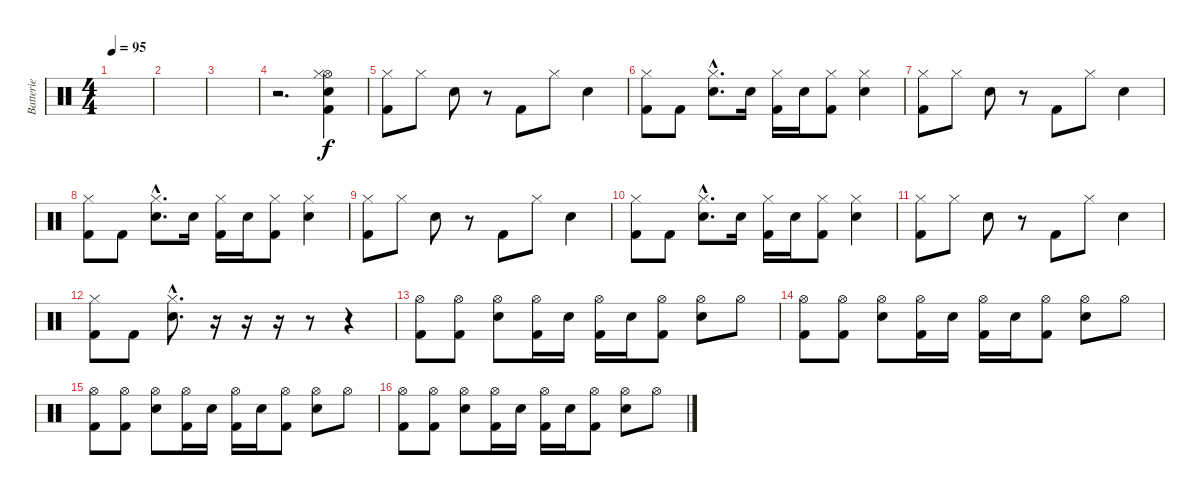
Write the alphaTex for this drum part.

\track ("Batterie" "Batterie") {instrument percussion}
\staff {score}
\articulation defaults
\ts (4 4)
\tempo 95
\clef neutral
\ks c
|
|
|
r.2{d} ("Kick (hit) 2" "Hi-Hat (open)" "Electric Snare (hit)" "Hi-Hat (closed)").4 |
("Kick (hit) 2" "Hi-Hat (closed)").8 "Hi-Hat (closed)".8 "Electric Snare (hit)".8 r.8 "Kick (hit) 2".8 "Hi-Hat (closed)".8 "Electric Snare (hit)".4 |
("Kick (hit) 2" "Hi-Hat (closed)").8 "Kick (hit) 2".8 ("Electric Snare (hit)"{hac} "Hi-Hat (closed)"{hac}).8{d} "Electric Snare (hit)".16 ("Kick (hit) 2" "Hi-Hat (closed)").16 "Electric Snare (hit)".16 ("Kick (hit) 2" "Hi-Hat (closed)").8 ("Electric Snare (hit)" "Hi-Hat (closed)").4 |
("Kick (hit) 2" "Hi-Hat (closed)").8 "Hi-Hat (closed)".8 "Electric Snare (hit)".8 r.8 "Kick (hit) 2".8 "Hi-Hat (closed)".8 "Electric Snare (hit)".4 |
("Kick (hit) 2" "Hi-Hat (closed)").8 "Kick (hit) 2".8 ("Electric Snare (hit)"{hac} "Hi-Hat (closed)"{hac}).8{d} "Electric Snare (hit)".16 ("Kick (hit) 2" "Hi-Hat (closed)").16 "Electric Snare (hit)".16 ("Kick (hit) 2" "Hi-Hat (closed)").8 ("Electric Snare (hit)" "Hi-Hat (closed)").4 |
("Kick (hit) 2" "Hi-Hat (closed)").8 "Hi-Hat (closed)".8 "Electric Snare (hit)".8 r.8 "Kick (hit) 2".8 "Hi-Hat (closed)".8 "Electric Snare (hit)".4 |
("Kick (hit) 2" "Hi-Hat (closed)").8 "Kick (hit) 2".8 ("Electric Snare (hit)"{hac} "Hi-Hat (closed)"{hac}).8{d} "Electric Snare (hit)".16 ("Kick (hit) 2" "Hi-Hat (closed)").16 "Electric Snare (hit)".16 ("Kick (hit) 2" "Hi-Hat (closed)").8 ("Electric Snare (hit)" "Hi-Hat (closed)").4 |
("Kick (hit) 2" "Hi-Hat (closed)").8 "Hi-Hat (closed)".8 "Electric Snare (hit)".8 r.8 "Kick (hit) 2".8 "Hi-Hat (closed)".8 "Electric Snare (hit)".4 |
("Kick (hit) 2" "Hi-Hat (closed)").8 "Kick (hit) 2".8 ("Electric Snare (hit)"{hac} "Hi-Hat (closed)"{hac}).8{d} r.16 r.16 r.16 r.8 r.4 |
("Kick (hit) 2" "Hi-Hat (open)").8 ("Kick (hit) 2" "Hi-Hat (open)").8 ("Electric Snare (hit)" "Hi-Hat (open)").8 ("Kick (hit) 2" "Hi-Hat (open)").16 "Electric Snare (hit)".16 ("Kick (hit) 2" "Hi-Hat (open)").16 "Electric Snare (hit)".16 ("Kick (hit) 2" "Hi-Hat (open)").8 ("Electric Snare (hit)" "Hi-Hat (open)").8 "Hi-Hat (open)".8 |
("Kick (hit) 2" "Hi-Hat (open)").8 ("Kick (hit) 2" "Hi-Hat (open)").8 ("Electric Snare (hit)" "Hi-Hat (open)").8 ("Kick (hit) 2" "Hi-Hat (open)").16 "Electric Snare (hit)".16 ("Kick (hit) 2" "Hi-Hat (open)").16 "Electric Snare (hit)".16 ("Kick (hit) 2" "Hi-Hat (open)").8 ("Electric Snare (hit)" "Hi-Hat (open)").8 "Hi-Hat (open)".8 |
("Kick (hit) 2" "Hi-Hat (open)").8 ("Kick (hit) 2" "Hi-Hat (open)").8 ("Electric Snare (hit)" "Hi-Hat (open)").8 ("Kick (hit) 2" "Hi-Hat (open)").16 "Electric Snare (hit)".16 ("Kick (hit) 2" "Hi-Hat (open)").16 "Electric Snare (hit)".16 ("Kick (hit) 2" "Hi-Hat (open)").8 ("Electric Snare (hit)" "Hi-Hat (open)").8 "Hi-Hat (open)".8 |
("Kick (hit) 2" "Hi-Hat (open)").8 ("Kick (hit) 2" "Hi-Hat (open)").8 ("Electric Snare (hit)" "Hi-Hat (open)").8 ("Kick (hit) 2" "Hi-Hat (open)").16 "Electric Snare (hit)".16 ("Kick (hit) 2" "Hi-Hat (open)").16 "Electric Snare (hit)".16 ("Kick (hit) 2" "Hi-Hat (open)").8 ("Electric Snare (hit)" "Hi-Hat (open)").8 "Hi-Hat (open)".8
